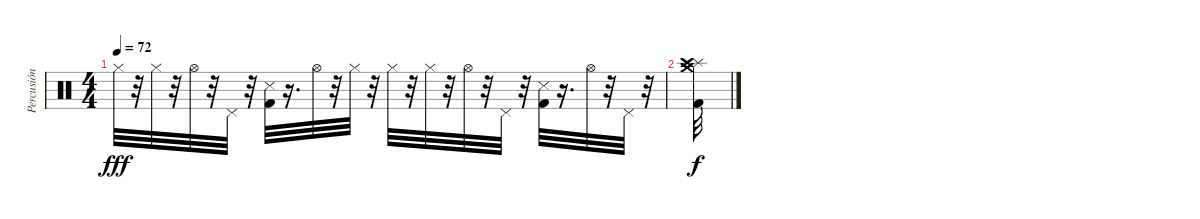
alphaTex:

\track ("Percusión" "Percusión") {instrument percussion}
\staff {score}
\articulation defaults
\ts (4 4)
\tempo 72
\clef neutral
\ks c "Hi-Hat (closed)".32{dy fff}
r.32 "Hi-Hat (closed)".32 r.32 "Hi-Hat (open)".32 r.32 "Pedal Hi-Hat (hit)".32 r.32 ("Kick (hit) 2" "Snare (side stick) 3").32 r.16{d} "Hi-Hat (open)".32 r.32 "Hi-Hat (closed)".32 r.32 "Hi-Hat (closed)".32 r.32 "Hi-Hat (closed)".32 r.32 "Hi-Hat (open)".32 r.32 "Pedal Hi-Hat (hit)".32 r.32 ("Kick (hit) 2" "Snare (side stick) 3").32 r.16{d} "Hi-Hat (open)".32 r.32 "Pedal Hi-Hat (hit)".32 r.32 |
("Crash medium (hit)" "Splash (hit)" "Crash high (hit)" "Kick (hit) 2").32{dy f}
